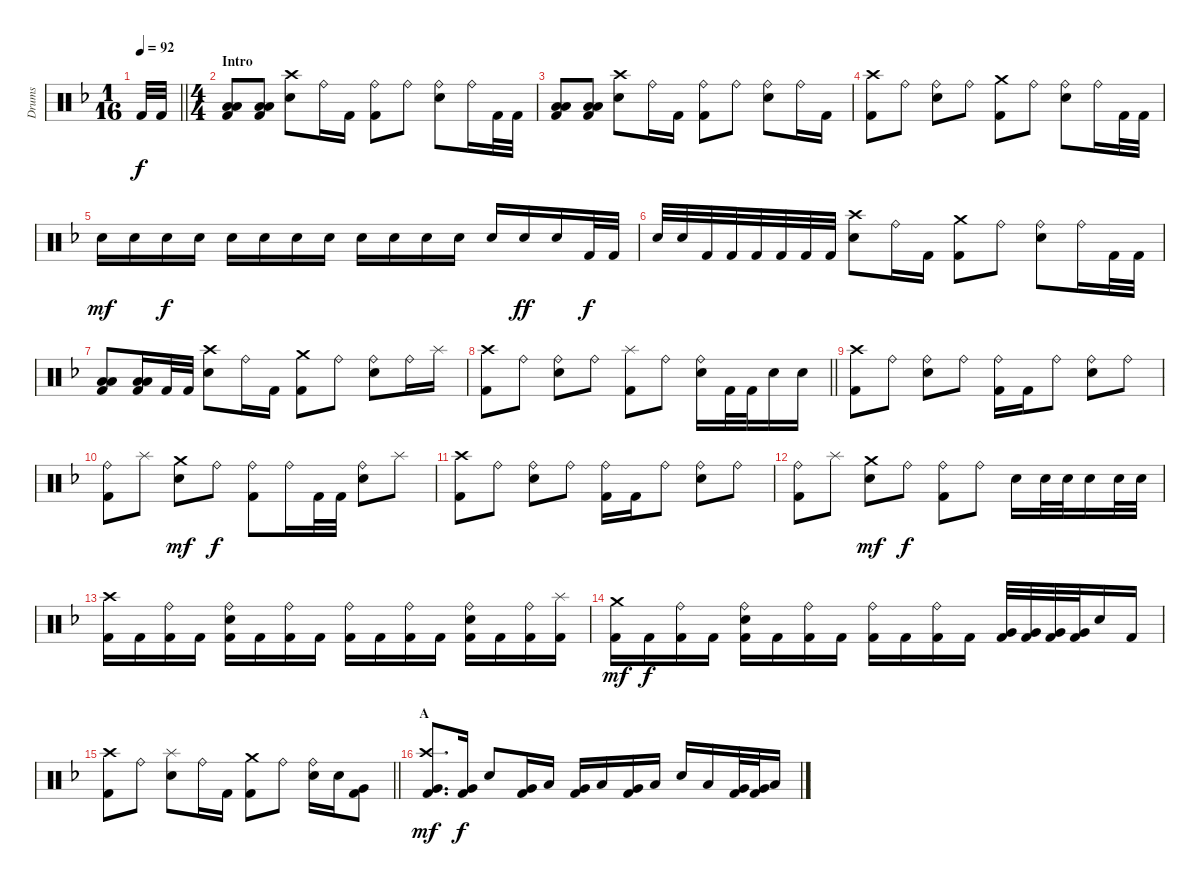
\track ("Drums" "Drums") {instrument percussion}
\staff {score}
\articulation defaults
\ts (1 16)
\tempo 92
\clef neutral
\barLineRight lightlight
\ks f "Kick (hit) 2".32{dy f} "Kick (hit) 2".32
|
\ts (4 4)
\section ("" "Intro")
("Kick (hit) 2" "Low Floor Tom (hit)" "Low Tom (hit)").8 ("Kick (hit) 2" "Low Floor Tom (hit)" "Low Tom (hit)").8 ("Crash high (hit)" "Snare (hit) 2").8 "Ride (bell)".16 "Kick (hit) 2".16 ("Ride (bell)" "Kick (hit) 2").8 "Ride (bell)".8 ("Ride (bell)" "Snare (hit) 2").8 "Ride (bell)".16 "Kick (hit) 2".32 "Kick (hit) 2".32 |
("Kick (hit) 2" "Low Floor Tom (hit)" "Low Tom (hit)").8 ("Kick (hit) 2" "Low Floor Tom (hit)" "Low Tom (hit)").8 ("Crash high (hit)" "Snare (hit) 2").8 "Ride (bell)".16 "Kick (hit) 2".16 ("Ride (bell)" "Kick (hit) 2").8 "Ride (bell)".8 ("Ride (bell)" "Snare (hit) 2").8 "Ride (bell)".16 "Kick (hit) 2".16 |
("Crash high (hit)" "Kick (hit) 2").8 "Ride (bell)".8 ("Ride (bell)" "Snare (hit) 2").8 "Ride (bell)".8 ("Crash medium (hit)" "Kick (hit) 2").8 "Ride (bell)".8 ("Ride (bell)" "Snare (hit) 2").8 "Ride (bell)".16 "Kick (hit) 2".32 "Kick (hit) 2".32 |
"Snare (hit) 2".16{dy mf} "Snare (hit) 2".16 "Snare (hit) 2".16{dy f} "Snare (hit) 2".16 "Snare (hit) 2".16 "Snare (hit) 2".16 "Snare (hit) 2".16 "Snare (hit) 2".16 "Snare (hit) 2".16 "Snare (hit) 2".16 "Snare (hit) 2".16 "Snare (hit) 2".16 "Snare (hit) 2".16 "Snare (hit) 2".16{dy ff} "Snare (hit) 2".16 "Kick (hit) 2".32{dy f} "Kick (hit) 2".32 |
"Snare (hit) 2".32 "Snare (hit) 2".32 "Kick (hit) 2".32 "Kick (hit) 2".32 "Kick (hit) 2".32 "Kick (hit) 2".32 "Kick (hit) 2".32 "Kick (hit) 2".32 ("Crash high (hit)" "Snare (hit) 2").8 "Ride (bell)".16 "Kick (hit) 2".16 ("Crash medium (hit)" "Kick (hit) 2").8 "Ride (bell)".8 ("Ride (bell)" "Snare (hit) 2").8 "Ride (bell)".16 "Kick (hit) 2".32 "Kick (hit) 2".32 |
("Kick (hit) 2" "Low Floor Tom (hit)" "Low Tom (hit)").8 ("Kick (hit) 2" "Low Floor Tom (hit)" "Low Tom (hit)").16 "Kick (hit) 2".32 "Kick (hit) 2".32 ("Crash high (hit)" "Snare (hit) 2").8 "Ride (bell)".16 "Kick (hit) 2".16 ("Crash medium (hit)" "Kick (hit) 2").8 "Ride (bell)".8 ("Ride (bell)" "Snare (hit) 2").8 "Ride (bell)".16 "Splash (hit)".16 |
\barLineRight lightlight
("Crash high (hit)" "Kick (hit) 2").8 "Ride (bell)".8 ("Ride (bell)" "Snare (hit) 2").8 "Ride (bell)".8 ("Splash (hit)" "Kick (hit) 2").8 "Ride (bell)".8 ("Ride (bell)" "Snare (hit) 2").16 "Kick (hit) 2".32 "Kick (hit) 2".32 "Snare (hit) 2".16 "Snare (hit) 2".16 |
\section ("" "")
("Crash high (hit)" "Kick (hit) 2").8 "Ride (bell)".8 ("Ride (bell)" "Snare (hit) 2").8 "Ride (bell)".8 ("Ride (bell)" "Kick (hit) 2").16 "Kick (hit) 2".16 "Ride (bell)".8 ("Ride (bell)" "Snare (hit) 2").8 "Ride (bell)".8 |
("Ride (bell)" "Kick (hit) 2").8 "Splash (hit)".8 ("Crash medium (hit)" "Snare (hit) 2").8{dy mf} "Ride (bell)".8{dy f} ("Ride (bell)" "Kick (hit) 2").8 "Ride (bell)".16 "Kick (hit) 2".32 "Kick (hit) 2".32 ("Ride (bell)" "Snare (hit) 2").8 "Splash (hit)".8 |
("Crash high (hit)" "Kick (hit) 2").8 "Ride (bell)".8 ("Ride (bell)" "Snare (hit) 2").8 "Ride (bell)".8 ("Ride (bell)" "Kick (hit) 2").16 "Kick (hit) 2".16 "Ride (bell)".8 ("Ride (bell)" "Snare (hit) 2").8 "Ride (bell)".8 |
("Ride (bell)" "Kick (hit) 2").8 "Splash (hit)".8 ("Crash medium (hit)" "Snare (hit) 2").8{dy mf} "Ride (bell)".8{dy f} ("Ride (bell)" "Kick (hit) 2").8 "Ride (bell)".8 "Snare (hit) 2".16 "Snare (hit) 2".32 "Snare (hit) 2".32 "Snare (hit) 2".16 "Snare (hit) 2".32 "Snare (hit) 2".32 |
("Kick (hit) 2" "Crash high (hit)").16 "Kick (hit) 2".16 ("Kick (hit) 2" "Ride (bell)").16 "Kick (hit) 2".16 ("Kick (hit) 2" "Ride (bell)" "Snare (hit) 2").16 "Kick (hit) 2".16 ("Kick (hit) 2" "Ride (bell)").16 "Kick (hit) 2".16 ("Kick (hit) 2" "Ride (bell)").16 "Kick (hit) 2".16 ("Kick (hit) 2" "Ride (bell)").16 "Kick (hit) 2".16 ("Kick (hit) 2" "Ride (bell)" "Snare (hit) 2").16 "Kick (hit) 2".16 ("Kick (hit) 2" "Ride (bell)").16 ("Kick (hit) 2" "Splash (hit)").16 |
("Kick (hit) 2" "Crash medium (hit)").16{dy mf} "Kick (hit) 2".16{dy f} ("Kick (hit) 2" "Ride (bell)").16 "Kick (hit) 2".16 ("Kick (hit) 2" "Ride (bell)" "Snare (hit) 2").16 "Kick (hit) 2".16 ("Kick (hit) 2" "Ride (bell)").16 "Kick (hit) 2".16 ("Kick (hit) 2" "Ride (bell)").16 "Kick (hit) 2".16 ("Kick (hit) 2" "Ride (bell)").16 "Kick (hit) 2".16 ("Very Low Tom (hit)" "Kick (hit) 2").32 ("Very Low Tom (hit)" "Kick (hit) 2").32 ("Very Low Tom (hit)" "Kick (hit) 2").32 ("Very Low Tom (hit)" "Kick (hit) 2").32 "Snare (hit) 2".16 "Kick (hit) 2".16 |
\barLineRight lightlight
("Crash high (hit)" "Kick (hit) 2").8 "Ride (bell)".8 ("Splash (hit)" "Snare (hit) 2").8 "Ride (bell)".16 "Kick (hit) 2".16 ("Crash medium (hit)" "Kick (hit) 2").8 "Ride (bell)".8 ("Ride (bell)" "Snare (hit) 2").16 "Snare (hit) 2".16 ("Kick (hit) 2" "Very Low Tom (hit)").8 |
\section ("" "A")
("Crash high (hit)" "Very Low Tom (hit)" "Kick (hit) 2").8{d dy mf} ("Very Low Tom (hit)" "Kick (hit) 2").16{dy f} "Snare (hit) 2".8 ("Very Low Tom (hit)" "Kick (hit) 2").16 "Low Tom (hit)".16 ("Very Low Tom (hit)" "Kick (hit) 2").16 "Low Tom (hit)".16 ("Very Low Tom (hit)" "Kick (hit) 2").16 "Low Tom (hit)".16 "Snare (hit) 2".16 "Low Tom (hit)".16 ("Very Low Tom (hit)" "Kick (hit) 2").32 ("Very Low Tom (hit)" "Kick (hit) 2").32 "Low Tom (hit)".16
